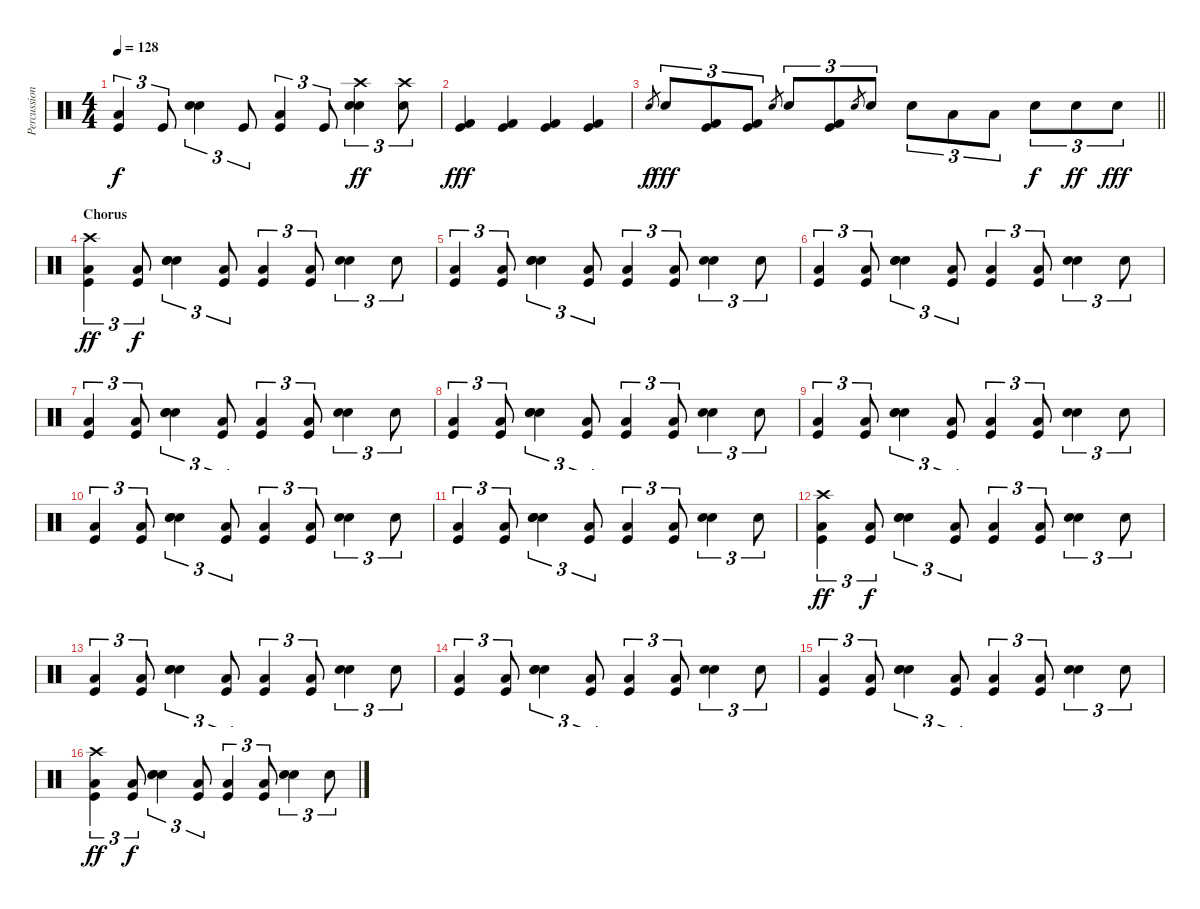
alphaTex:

\track ("Percussion" "Percussion") {instrument percussion}
\staff {score}
\articulation defaults
\ts (4 4)
\tempo 128
\clef neutral
\ks c
("Low Floor Tom (hit)" "Kick (hit)").4{tu (3 2) dy f} "Kick (hit)".8{tu (3 2)} ("Hand Clap (hit)" "Electric Snare (hit)").4{tu (3 2)} "Kick (hit)".8{tu (3 2)} ("Low Floor Tom (hit)" "Kick (hit)").4{tu (3 2)} "Kick (hit)".8{tu (3 2)} ("Crash high (hit)" "Hand Clap (hit)" "Electric Snare (hit)").4{tu (3 2) dy ff} ("Crash high (hit)" "Hand Clap (hit)").8{tu (3 2)} |
("Kick (hit) 2" "Kick (hit)").4{dy fff} ("Kick (hit) 2" "Kick (hit)").4 ("Kick (hit) 2" "Kick (hit)").4 ("Kick (hit) 2" "Kick (hit)").4 |
\barLineRight lightlight "Electric Snare (hit)".8{gr dy f} "Electric Snare (hit)".8{tu (3 2) dy fff}
("Kick (hit) 2" "Kick (hit)").8{tu (3 2)} ("Kick (hit) 2" "Kick (hit)").8{tu (3 2)} "Electric Snare (hit)".8{gr} "Electric Snare (hit)".8{tu (3 2)} ("Kick (hit) 2" "Kick (hit)").8{tu (3 2)} "Electric Snare (hit)".8{gr} "Electric Snare (hit)".8{tu (3 2)} "Electric Snare (hit)".8{tu (3 2)} "Low Tom (hit)".8{tu (3 2)} "Low Floor Tom (hit)".8{tu (3 2)} "Electric Snare (hit)".8{tu (3 2) dy f} "Electric Snare (hit)".8{tu (3 2) dy ff} "Electric Snare (hit)".8{tu (3 2) dy fff} |
\section ("" "Chorus")
("Crash high (hit)" "Low Floor Tom (hit)" "Kick (hit)").4{tu (3 2) dy ff} ("Low Floor Tom (hit)" "Kick (hit)").8{tu (3 2) dy f} ("Hand Clap (hit)" "Electric Snare (hit)" "Snare (hit) 2").4{tu (3 2)} ("Low Floor Tom (hit)" "Kick (hit)").8{tu (3 2)} ("Low Floor Tom (hit)" "Kick (hit)").4{tu (3 2)} ("Low Floor Tom (hit)" "Kick (hit)").8{tu (3 2)} ("Hand Clap (hit)" "Electric Snare (hit)").4{tu (3 2)} "Hand Clap (hit)".8{tu (3 2)} |
("Low Floor Tom (hit)" "Kick (hit)").4{tu (3 2)} ("Low Floor Tom (hit)" "Kick (hit)").8{tu (3 2)} ("Hand Clap (hit)" "Electric Snare (hit)" "Snare (hit) 2").4{tu (3 2)} ("Low Floor Tom (hit)" "Kick (hit)").8{tu (3 2)} ("Low Floor Tom (hit)" "Kick (hit)").4{tu (3 2)} ("Low Floor Tom (hit)" "Kick (hit)").8{tu (3 2)} ("Hand Clap (hit)" "Electric Snare (hit)").4{tu (3 2)} "Hand Clap (hit)".8{tu (3 2)} |
("Low Floor Tom (hit)" "Kick (hit)").4{tu (3 2)} ("Low Floor Tom (hit)" "Kick (hit)").8{tu (3 2)} ("Hand Clap (hit)" "Electric Snare (hit)" "Snare (hit) 2").4{tu (3 2)} ("Low Floor Tom (hit)" "Kick (hit)").8{tu (3 2)} ("Low Floor Tom (hit)" "Kick (hit)").4{tu (3 2)} ("Low Floor Tom (hit)" "Kick (hit)").8{tu (3 2)} ("Hand Clap (hit)" "Electric Snare (hit)").4{tu (3 2)} "Hand Clap (hit)".8{tu (3 2)} |
("Low Floor Tom (hit)" "Kick (hit)").4{tu (3 2)} ("Low Floor Tom (hit)" "Kick (hit)").8{tu (3 2)} ("Hand Clap (hit)" "Electric Snare (hit)" "Snare (hit) 2").4{tu (3 2)} ("Low Floor Tom (hit)" "Kick (hit)").8{tu (3 2)} ("Low Floor Tom (hit)" "Kick (hit)").4{tu (3 2)} ("Low Floor Tom (hit)" "Kick (hit)").8{tu (3 2)} ("Hand Clap (hit)" "Electric Snare (hit)").4{tu (3 2)} "Hand Clap (hit)".8{tu (3 2)} |
("Low Floor Tom (hit)" "Kick (hit)").4{tu (3 2)} ("Low Floor Tom (hit)" "Kick (hit)").8{tu (3 2)} ("Hand Clap (hit)" "Electric Snare (hit)" "Snare (hit) 2").4{tu (3 2)} ("Low Floor Tom (hit)" "Kick (hit)").8{tu (3 2)} ("Low Floor Tom (hit)" "Kick (hit)").4{tu (3 2)} ("Low Floor Tom (hit)" "Kick (hit)").8{tu (3 2)} ("Hand Clap (hit)" "Electric Snare (hit)").4{tu (3 2)} "Hand Clap (hit)".8{tu (3 2)} |
("Low Floor Tom (hit)" "Kick (hit)").4{tu (3 2)} ("Low Floor Tom (hit)" "Kick (hit)").8{tu (3 2)} ("Hand Clap (hit)" "Electric Snare (hit)" "Snare (hit) 2").4{tu (3 2)} ("Low Floor Tom (hit)" "Kick (hit)").8{tu (3 2)} ("Low Floor Tom (hit)" "Kick (hit)").4{tu (3 2)} ("Low Floor Tom (hit)" "Kick (hit)").8{tu (3 2)} ("Hand Clap (hit)" "Electric Snare (hit)").4{tu (3 2)} "Hand Clap (hit)".8{tu (3 2)} |
("Low Floor Tom (hit)" "Kick (hit)").4{tu (3 2)} ("Low Floor Tom (hit)" "Kick (hit)").8{tu (3 2)} ("Hand Clap (hit)" "Electric Snare (hit)" "Snare (hit) 2").4{tu (3 2)} ("Low Floor Tom (hit)" "Kick (hit)").8{tu (3 2)} ("Low Floor Tom (hit)" "Kick (hit)").4{tu (3 2)} ("Low Floor Tom (hit)" "Kick (hit)").8{tu (3 2)} ("Hand Clap (hit)" "Electric Snare (hit)").4{tu (3 2)} "Hand Clap (hit)".8{tu (3 2)} |
("Low Floor Tom (hit)" "Kick (hit)").4{tu (3 2)} ("Low Floor Tom (hit)" "Kick (hit)").8{tu (3 2)} ("Hand Clap (hit)" "Electric Snare (hit)" "Snare (hit) 2").4{tu (3 2)} ("Low Floor Tom (hit)" "Kick (hit)").8{tu (3 2)} ("Low Floor Tom (hit)" "Kick (hit)").4{tu (3 2)} ("Low Floor Tom (hit)" "Kick (hit)").8{tu (3 2)} ("Hand Clap (hit)" "Electric Snare (hit)").4{tu (3 2)} "Hand Clap (hit)".8{tu (3 2)} |
("Crash high (hit)" "Low Floor Tom (hit)" "Kick (hit)").4{tu (3 2) dy ff} ("Low Floor Tom (hit)" "Kick (hit)").8{tu (3 2) dy f} ("Hand Clap (hit)" "Electric Snare (hit)" "Snare (hit) 2").4{tu (3 2)} ("Low Floor Tom (hit)" "Kick (hit)").8{tu (3 2)} ("Low Floor Tom (hit)" "Kick (hit)").4{tu (3 2)} ("Low Floor Tom (hit)" "Kick (hit)").8{tu (3 2)} ("Hand Clap (hit)" "Electric Snare (hit)").4{tu (3 2)} "Hand Clap (hit)".8{tu (3 2)} |
("Low Floor Tom (hit)" "Kick (hit)").4{tu (3 2)} ("Low Floor Tom (hit)" "Kick (hit)").8{tu (3 2)} ("Hand Clap (hit)" "Electric Snare (hit)" "Snare (hit) 2").4{tu (3 2)} ("Low Floor Tom (hit)" "Kick (hit)").8{tu (3 2)} ("Low Floor Tom (hit)" "Kick (hit)").4{tu (3 2)} ("Low Floor Tom (hit)" "Kick (hit)").8{tu (3 2)} ("Hand Clap (hit)" "Electric Snare (hit)").4{tu (3 2)} "Hand Clap (hit)".8{tu (3 2)} |
("Low Floor Tom (hit)" "Kick (hit)").4{tu (3 2)} ("Low Floor Tom (hit)" "Kick (hit)").8{tu (3 2)} ("Hand Clap (hit)" "Electric Snare (hit)" "Snare (hit) 2").4{tu (3 2)} ("Low Floor Tom (hit)" "Kick (hit)").8{tu (3 2)} ("Low Floor Tom (hit)" "Kick (hit)").4{tu (3 2)} ("Low Floor Tom (hit)" "Kick (hit)").8{tu (3 2)} ("Hand Clap (hit)" "Electric Snare (hit)").4{tu (3 2)} "Hand Clap (hit)".8{tu (3 2)} |
("Low Floor Tom (hit)" "Kick (hit)").4{tu (3 2)} ("Low Floor Tom (hit)" "Kick (hit)").8{tu (3 2)} ("Hand Clap (hit)" "Electric Snare (hit)" "Snare (hit) 2").4{tu (3 2)} ("Low Floor Tom (hit)" "Kick (hit)").8{tu (3 2)} ("Low Floor Tom (hit)" "Kick (hit)").4{tu (3 2)} ("Low Floor Tom (hit)" "Kick (hit)").8{tu (3 2)} ("Hand Clap (hit)" "Electric Snare (hit)").4{tu (3 2)} "Hand Clap (hit)".8{tu (3 2)} |
("Crash high (hit)" "Low Floor Tom (hit)" "Kick (hit)").4{tu (3 2) dy ff} ("Low Floor Tom (hit)" "Kick (hit)").8{tu (3 2) dy f} ("Hand Clap (hit)" "Electric Snare (hit)" "Snare (hit) 2").4{tu (3 2)} ("Low Floor Tom (hit)" "Kick (hit)").8{tu (3 2)} ("Low Floor Tom (hit)" "Kick (hit)").4{tu (3 2)} ("Low Floor Tom (hit)" "Kick (hit)").8{tu (3 2)} ("Hand Clap (hit)" "Electric Snare (hit)").4{tu (3 2)} "Hand Clap (hit)".8{tu (3 2)}
